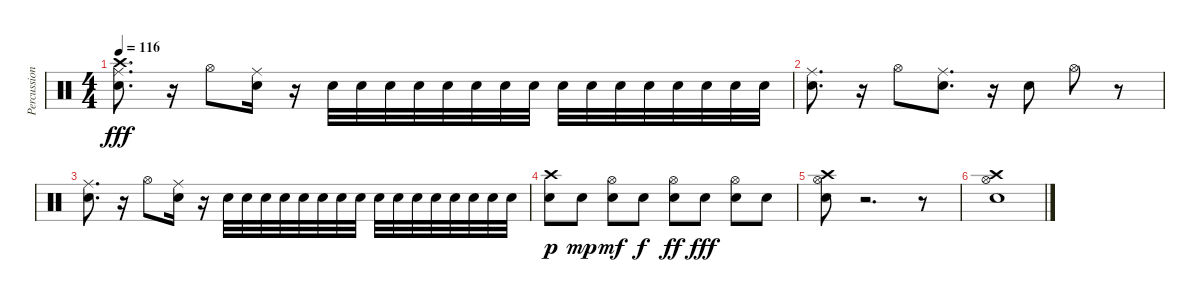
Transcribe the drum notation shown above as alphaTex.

\track ("Percussion (Glenn Porter)" "Percussion") {instrument percussion}
\staff {score}
\articulation defaults
\ts (4 4)
\tempo 116
\clef neutral
\ks c
("Ride (middle)" "Crash high (hit)" "Electric Snare (hit)").8{d dy fff} r.16 "Hi-Hat (open)".8 ("Ride (middle)" "Electric Snare (hit)").16 r.16 "Snare (hit) 2".32 "Snare (hit) 2".32 "Snare (hit) 2".32 "Snare (hit) 2".32 "Snare (hit) 2".32 "Snare (hit) 2".32 "Snare (hit) 2".32 "Snare (hit) 2".32 "Snare (hit) 2".32 "Snare (hit) 2".32 "Snare (hit) 2".32 "Snare (hit) 2".32 "Snare (hit) 2".32 "Snare (hit) 2".32 "Snare (hit) 2".32 "Snare (hit) 2".32 |
("Ride (middle)" "Electric Snare (hit)").8{d} r.16 "Hi-Hat (open)".8 ("Ride (middle)" "Electric Snare (hit)").8{d} r.16 "Snare (hit) 2".8 "Hi-Hat (open)".8 r.8 |
("Ride (middle)" "Electric Snare (hit)").8{d} r.16 "Hi-Hat (open)".8 ("Ride (middle)" "Electric Snare (hit)").16 r.16 "Snare (hit) 2".32 "Snare (hit) 2".32 "Snare (hit) 2".32 "Snare (hit) 2".32 "Snare (hit) 2".32 "Snare (hit) 2".32 "Snare (hit) 2".32 "Snare (hit) 2".32 "Snare (hit) 2".32 "Snare (hit) 2".32 "Snare (hit) 2".32 "Snare (hit) 2".32 "Snare (hit) 2".32 "Snare (hit) 2".32 "Snare (hit) 2".32 "Snare (hit) 2".32 |
("Crash high (hit)" "Electric Snare (hit)").8{dy p} "Electric Snare (hit)".8{dy mp} ("Hi-Hat (open)" "Electric Snare (hit)").8{dy mf} "Electric Snare (hit)".8{dy f} ("Hi-Hat (open)" "Electric Snare (hit)").8{dy ff} "Electric Snare (hit)".8{dy fff} ("Hi-Hat (open)" "Electric Snare (hit)").8 "Electric Snare (hit)".8 |
("Crash high (hit)" "Hi-Hat (open)" "Electric Snare (hit)").8 r.2{d} r.8 |
("Crash high (hit)" "Hi-Hat (open)" "Snare (hit) 2").1
